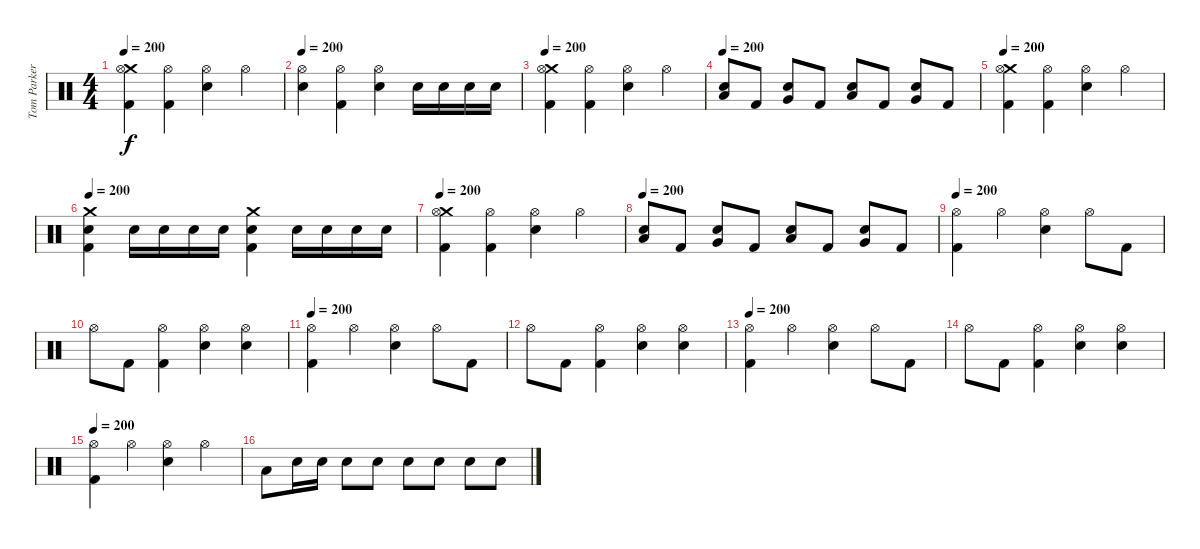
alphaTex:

\track ("Tom Parker" "Tom Parker") {instrument percussion}
\staff {score}
\articulation defaults
\ts (4 4)
\tempo 200
\clef neutral
\ks c
("Crash medium (hit)" "Hi-Hat (open)" "Kick (hit) 2").4{dy f} ("Hi-Hat (open)" "Kick (hit) 2").4 ("Hi-Hat (open)" "Electric Snare (hit)").4 "Hi-Hat (open)".4 |
\tempo 200
("Hi-Hat (open)" "Electric Snare (hit)").4 ("Hi-Hat (open)" "Kick (hit) 2").4 ("Hi-Hat (open)" "Electric Snare (hit)").4 "Electric Snare (hit)".16 "Electric Snare (hit)".16 "Electric Snare (hit)".16 "Electric Snare (hit)".16 |
\tempo 200
("Crash medium (hit)" "Hi-Hat (open)" "Kick (hit) 2").4 ("Hi-Hat (open)" "Kick (hit) 2").4 ("Hi-Hat (open)" "Electric Snare (hit)").4 "Hi-Hat (open)".4 |
\tempo 200
("Low Tom (hit)" "Electric Snare (hit)").8 "Kick (hit) 2".8 ("Very Low Tom (hit)" "Electric Snare (hit)").8 "Kick (hit) 2".8 ("Low Tom (hit)" "Electric Snare (hit)").8 "Kick (hit) 2".8 ("Very Low Tom (hit)" "Electric Snare (hit)").8 "Kick (hit) 2".8 |
\tempo 200
("Crash medium (hit)" "Hi-Hat (open)" "Kick (hit) 2").4 ("Hi-Hat (open)" "Kick (hit) 2").4 ("Hi-Hat (open)" "Electric Snare (hit)").4 "Hi-Hat (open)".4 |
\tempo 200
("Crash medium (hit)" "Electric Snare (hit)" "Kick (hit) 2").4 "Electric Snare (hit)".16 "Electric Snare (hit)".16 "Electric Snare (hit)".16 "Electric Snare (hit)".16 ("Crash medium (hit)" "Electric Snare (hit)" "Kick (hit) 2").4 "Electric Snare (hit)".16 "Electric Snare (hit)".16 "Electric Snare (hit)".16 "Electric Snare (hit)".16 |
\tempo 200
("Crash medium (hit)" "Hi-Hat (open)" "Kick (hit) 2").4 ("Hi-Hat (open)" "Kick (hit) 2").4 ("Hi-Hat (open)" "Electric Snare (hit)").4 "Hi-Hat (open)".4 |
\tempo 200
("Low Tom (hit)" "Electric Snare (hit)").8 "Kick (hit) 2".8 ("Very Low Tom (hit)" "Electric Snare (hit)").8 "Kick (hit) 2".8 ("Low Tom (hit)" "Electric Snare (hit)").8 "Kick (hit) 2".8 ("Very Low Tom (hit)" "Electric Snare (hit)").8 "Kick (hit) 2".8 |
\tempo 200
("Hi-Hat (open)" "Kick (hit) 2").4 "Hi-Hat (open)".4 ("Hi-Hat (open)" "Electric Snare (hit)").4 "Hi-Hat (open)".8 "Kick (hit) 2".8 |
"Hi-Hat (open)".8 "Kick (hit) 2".8 ("Hi-Hat (open)" "Kick (hit) 2").4 ("Hi-Hat (open)" "Electric Snare (hit)").4 ("Hi-Hat (open)" "Electric Snare (hit)").4 |
\tempo 200
("Hi-Hat (open)" "Kick (hit) 2").4 "Hi-Hat (open)".4 ("Hi-Hat (open)" "Electric Snare (hit)").4 "Hi-Hat (open)".8 "Kick (hit) 2".8 |
"Hi-Hat (open)".8 "Kick (hit) 2".8 ("Hi-Hat (open)" "Kick (hit) 2").4 ("Hi-Hat (open)" "Electric Snare (hit)").4 ("Hi-Hat (open)" "Electric Snare (hit)").4 |
\tempo 200
("Hi-Hat (open)" "Kick (hit) 2").4 "Hi-Hat (open)".4 ("Hi-Hat (open)" "Electric Snare (hit)").4 "Hi-Hat (open)".8 "Kick (hit) 2".8 |
"Hi-Hat (open)".8 "Kick (hit) 2".8 ("Hi-Hat (open)" "Kick (hit) 2").4 ("Hi-Hat (open)" "Electric Snare (hit)").4 ("Hi-Hat (open)" "Electric Snare (hit)").4 |
\tempo 200
("Hi-Hat (open)" "Kick (hit) 2").4 "Hi-Hat (open)".4 ("Hi-Hat (open)" "Electric Snare (hit)").4 "Hi-Hat (open)".4 |
"Low Tom (hit)".8 "Electric Snare (hit)".16 "Electric Snare (hit)".16 "Electric Snare (hit)".8 "Electric Snare (hit)".8 "Electric Snare (hit)".8 "Electric Snare (hit)".8 "Electric Snare (hit)".8 "Electric Snare (hit)".8
